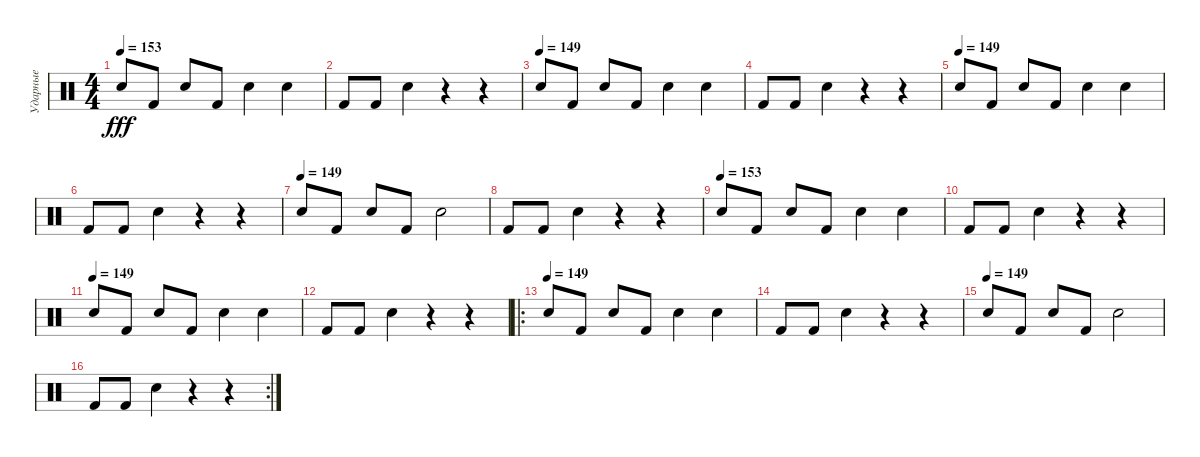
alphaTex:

\track ("Ударные" "Ударные") {instrument percussion}
\staff {score}
\articulation defaults
\ts (4 4)
\tempo 153
\clef neutral
\ks c "Snare (hit) 2".8{dy fff} "Kick (hit) 2".8 "Snare (hit) 2".8 "Kick (hit) 2".8 "Snare (hit) 2".4 "Snare (hit) 2".4
|
"Kick (hit) 2".8 "Kick (hit) 2".8 "Snare (hit) 2".4 r.4 r.4 |
\tempo (149)
"Snare (hit) 2".8 "Kick (hit) 2".8 "Snare (hit) 2".8 "Kick (hit) 2".8 "Snare (hit) 2".4 "Snare (hit) 2".4 |
"Kick (hit) 2".8 "Kick (hit) 2".8 "Snare (hit) 2".4 r.4 r.4 |
\tempo (149)
"Snare (hit) 2".8 "Kick (hit) 2".8 "Snare (hit) 2".8 "Kick (hit) 2".8 "Snare (hit) 2".4 "Snare (hit) 2".4 |
"Kick (hit) 2".8 "Kick (hit) 2".8 "Snare (hit) 2".4 r.4 r.4 |
\tempo (149)
"Snare (hit) 2".8 "Kick (hit) 2".8 "Snare (hit) 2".8 "Kick (hit) 2".8 "Snare (hit) 2".2 |
"Kick (hit) 2".8 "Kick (hit) 2".8 "Snare (hit) 2".4 r.4 r.4 |
\tempo (153)
"Snare (hit) 2".8 "Kick (hit) 2".8 "Snare (hit) 2".8 "Kick (hit) 2".8 "Snare (hit) 2".4 "Snare (hit) 2".4 |
"Kick (hit) 2".8 "Kick (hit) 2".8 "Snare (hit) 2".4 r.4 r.4 |
\tempo (149)
"Snare (hit) 2".8 "Kick (hit) 2".8 "Snare (hit) 2".8 "Kick (hit) 2".8 "Snare (hit) 2".4 "Snare (hit) 2".4 |
"Kick (hit) 2".8 "Kick (hit) 2".8 "Snare (hit) 2".4 r.4 r.4 |
\ro
\tempo (149)
"Snare (hit) 2".8 "Kick (hit) 2".8 "Snare (hit) 2".8 "Kick (hit) 2".8 "Snare (hit) 2".4 "Snare (hit) 2".4 |
"Kick (hit) 2".8 "Kick (hit) 2".8 "Snare (hit) 2".4 r.4 r.4 |
\tempo (149)
"Snare (hit) 2".8 "Kick (hit) 2".8 "Snare (hit) 2".8 "Kick (hit) 2".8 "Snare (hit) 2".2 |
\rc 2 "Kick (hit) 2".8 "Kick (hit) 2".8 "Snare (hit) 2".4
r.4 r.4
